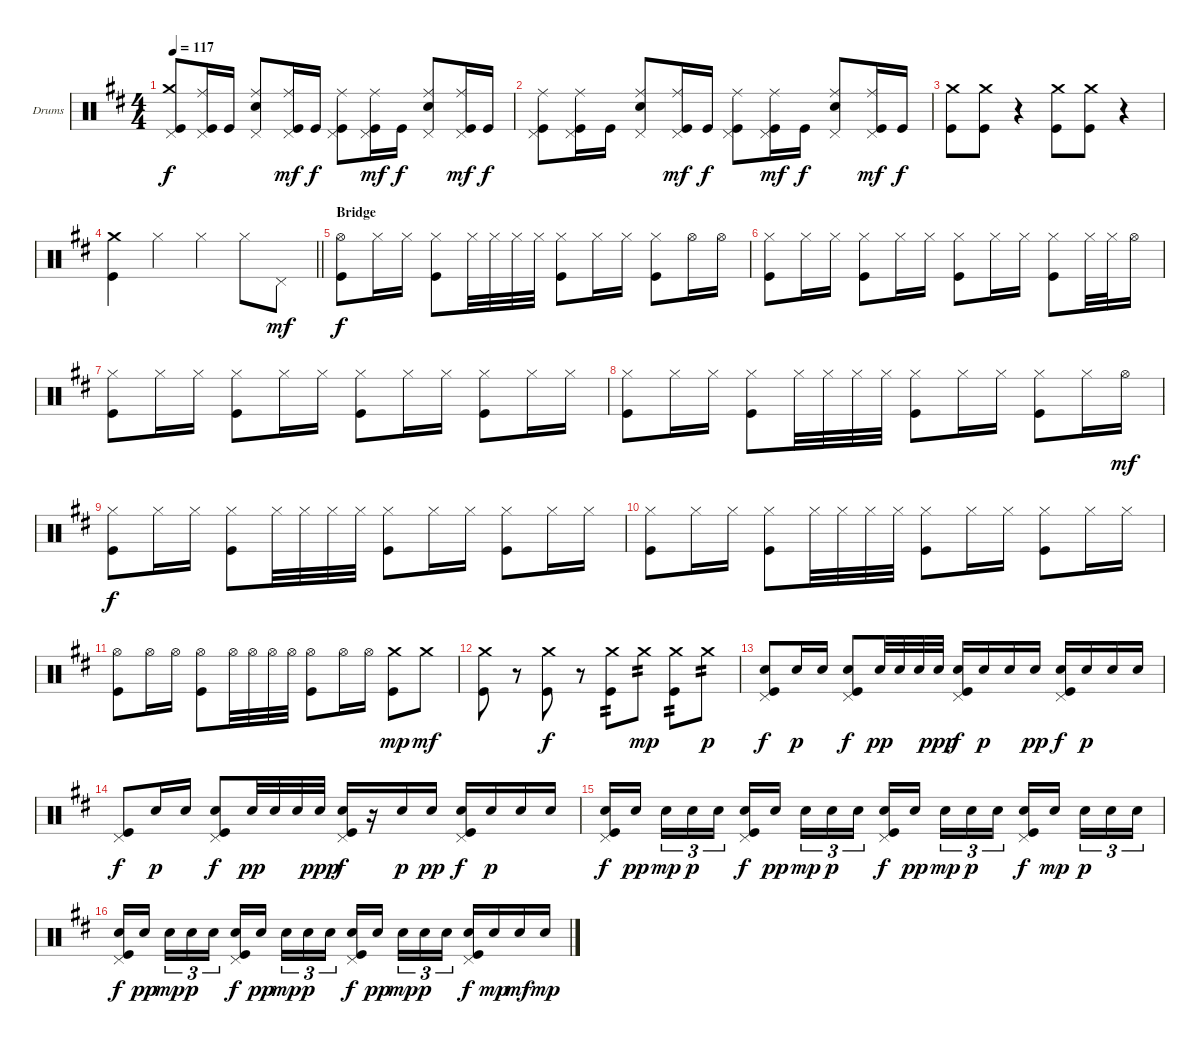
\bracketExtendMode groupsimilarinstruments
\firstSystemTrackNameOrientation horizontal
\otherSystemsTrackNameOrientation horizontal
\track ("Барабаны" "Drums") {instrument percussion}
\staff {score}
\articulation defaults
\ts (4 4)
\tempo 117
\clef neutral
\ks d
("Kick (hit)" "Crash medium (hit)" "Pedal Hi-Hat (hit)").8{dy f} ("Kick (hit)" "Ride (middle)" "Pedal Hi-Hat (hit)").16 "Kick (hit)".16 ("Snare (hit) 2" "Ride (middle)" "Pedal Hi-Hat (hit)").8 ("Ride (middle)" "Kick (hit)" "Pedal Hi-Hat (hit)").16{dy mf} "Kick (hit)".16{dy f} ("Kick (hit)" "Ride (middle)" "Pedal Hi-Hat (hit)").8 ("Ride (middle)" "Kick (hit)" "Pedal Hi-Hat (hit)").16{dy mf} "Kick (hit)".16{dy f} ("Snare (hit) 2" "Ride (middle)" "Pedal Hi-Hat (hit)").8 ("Ride (middle)" "Kick (hit)" "Pedal Hi-Hat (hit)").16{dy mf} "Kick (hit)".16{dy f} |
("Kick (hit)" "Ride (middle)" "Pedal Hi-Hat (hit)").8 ("Kick (hit)" "Ride (middle)" "Pedal Hi-Hat (hit)").16 "Kick (hit)".16 ("Snare (hit) 2" "Ride (middle)" "Pedal Hi-Hat (hit)").8 ("Ride (middle)" "Kick (hit)" "Pedal Hi-Hat (hit)").16{dy mf} "Kick (hit)".16{dy f} ("Kick (hit)" "Ride (middle)" "Pedal Hi-Hat (hit)").8 ("Ride (middle)" "Kick (hit)" "Pedal Hi-Hat (hit)").16{dy mf} "Kick (hit)".16{dy f} ("Snare (hit) 2" "Ride (middle)" "Pedal Hi-Hat (hit)").8 ("Ride (middle)" "Kick (hit)" "Pedal Hi-Hat (hit)").16{dy mf} "Kick (hit)".16{dy f} |
("Kick (hit)" "Crash medium (hit)").8 ("Kick (hit)" "Crash medium (hit)").8 r.4 ("Kick (hit)" "Crash medium (hit)").8 ("Kick (hit)" "Crash medium (hit)").8 r.4 |
\barLineRight lightlight
("Kick (hit)" "Crash medium (hit)").4 "Hi-Hat (closed)".4 "Hi-Hat (closed)".4 "Hi-Hat (closed)".8 "Pedal Hi-Hat (hit)".8{dy mf} |
\section ("" "Bridge")
("Hi-Hat (open)" "Kick (hit)").8{dy f} "Hi-Hat (closed)".16 "Hi-Hat (closed)".16 ("Hi-Hat (closed)" "Kick (hit)").8 "Hi-Hat (closed)".32 "Hi-Hat (closed)".32 "Hi-Hat (closed)".32 "Hi-Hat (closed)".32 ("Hi-Hat (closed)" "Kick (hit)").8 "Hi-Hat (closed)".16 "Hi-Hat (closed)".16 ("Hi-Hat (closed)" "Kick (hit)").8 "Hi-Hat (open)".16 "Hi-Hat (open)".16 |
("Hi-Hat (closed)" "Kick (hit)").8 "Hi-Hat (closed)".16 "Hi-Hat (closed)".16 ("Hi-Hat (closed)" "Kick (hit)").8 "Hi-Hat (closed)".16 "Hi-Hat (closed)".16 ("Hi-Hat (closed)" "Kick (hit)").8 "Hi-Hat (closed)".16 "Hi-Hat (closed)".16 ("Hi-Hat (closed)" "Kick (hit)").8 "Hi-Hat (closed)".32 "Hi-Hat (closed)".32 "Hi-Hat (open)".16 |
("Hi-Hat (closed)" "Kick (hit)").8 "Hi-Hat (closed)".16 "Hi-Hat (closed)".16 ("Hi-Hat (closed)" "Kick (hit)").8 "Hi-Hat (closed)".16 "Hi-Hat (closed)".16 ("Hi-Hat (closed)" "Kick (hit)").8 "Hi-Hat (closed)".16 "Hi-Hat (closed)".16 ("Hi-Hat (closed)" "Kick (hit)").8 "Hi-Hat (closed)".16 "Hi-Hat (closed)".16 |
("Hi-Hat (closed)" "Kick (hit)").8 "Hi-Hat (closed)".16 "Hi-Hat (closed)".16 ("Hi-Hat (closed)" "Kick (hit)").8 "Hi-Hat (closed)".32 "Hi-Hat (closed)".32 "Hi-Hat (closed)".32 "Hi-Hat (closed)".32 ("Hi-Hat (closed)" "Kick (hit)").8 "Hi-Hat (closed)".16 "Hi-Hat (closed)".16 ("Hi-Hat (closed)" "Kick (hit)").8 "Hi-Hat (closed)".16 "Hi-Hat (open)".16{dy mf} |
("Hi-Hat (closed)" "Kick (hit)").8{dy f} "Hi-Hat (closed)".16 "Hi-Hat (closed)".16 ("Hi-Hat (closed)" "Kick (hit)").8 "Hi-Hat (closed)".32 "Hi-Hat (closed)".32 "Hi-Hat (closed)".32 "Hi-Hat (closed)".32 ("Hi-Hat (closed)" "Kick (hit)").8 "Hi-Hat (closed)".16 "Hi-Hat (closed)".16 ("Hi-Hat (closed)" "Kick (hit)").8 "Hi-Hat (closed)".16 "Hi-Hat (closed)".16 |
("Hi-Hat (closed)" "Kick (hit)").8 "Hi-Hat (closed)".16 "Hi-Hat (closed)".16 ("Hi-Hat (closed)" "Kick (hit)").8 "Hi-Hat (closed)".32 "Hi-Hat (closed)".32 "Hi-Hat (closed)".32 "Hi-Hat (closed)".32 ("Hi-Hat (closed)" "Kick (hit)").8 "Hi-Hat (closed)".16 "Hi-Hat (closed)".16 ("Hi-Hat (closed)" "Kick (hit)").8 "Hi-Hat (closed)".16 "Hi-Hat (closed)".16 |
("Hi-Hat (open)" "Kick (hit)").8 "Hi-Hat (open)".16 "Hi-Hat (open)".16 ("Kick (hit)" "Hi-Hat (open)").8 "Hi-Hat (open)".32 "Hi-Hat (open)".32 "Hi-Hat (open)".32 "Hi-Hat (open)".32 ("Hi-Hat (open)" "Kick (hit)").8 "Hi-Hat (open)".16 "Hi-Hat (open)".16 ("Crash medium (hit)" "Kick (hit)").8{dy mp} "Crash medium (hit)".8{dy mf} |
("Crash medium (hit)" "Kick (hit)").8 r.8 ("Kick (hit)" "Crash medium (hit)").8{dy f} r.8 ("Kick (hit)" "Crash medium (hit)").8{tp 2} "Crash medium (hit)".8{tp 2 dy mp} ("Crash medium (hit)" "Kick (hit)").8{tp 2} "Crash medium (hit)".8{tp 2 dy p} |
("Kick (hit)" "Pedal Hi-Hat (hit)" "Snare (hit) 2").8{dy f} "Snare (hit) 2".16{dy p} "Snare (hit) 2".16 ("Kick (hit)" "Pedal Hi-Hat (hit)" "Snare (hit) 2").8{dy f} "Snare (hit) 2".32{dy pp} "Snare (hit) 2".32 "Snare (hit) 2".32 "Snare (hit) 2".32{dy ppp} ("Kick (hit)" "Pedal Hi-Hat (hit)" "Snare (hit) 2").16{dy f} "Snare (hit) 2".16{dy p} "Snare (hit) 2".16 "Snare (hit) 2".16{dy pp} ("Kick (hit)" "Pedal Hi-Hat (hit)" "Snare (hit) 2").16{dy f} "Snare (hit) 2".16{dy p} "Snare (hit) 2".16 "Snare (hit) 2".16 |
("Kick (hit)" "Pedal Hi-Hat (hit)").8{dy f} "Snare (hit) 2".16{dy p} "Snare (hit) 2".16 ("Kick (hit)" "Pedal Hi-Hat (hit)" "Snare (hit) 2").8{dy f} "Snare (hit) 2".32{dy pp} "Snare (hit) 2".32 "Snare (hit) 2".32 "Snare (hit) 2".32{dy ppp} ("Kick (hit)" "Pedal Hi-Hat (hit)" "Snare (hit) 2").16{dy f} r.16 "Snare (hit) 2".16{dy p} "Snare (hit) 2".16{dy pp} ("Kick (hit)" "Pedal Hi-Hat (hit)" "Snare (hit) 2").16{dy f} "Snare (hit) 2".16{dy p} "Snare (hit) 2".16 "Snare (hit) 2".16 |
("Kick (hit)" "Pedal Hi-Hat (hit)" "Snare (hit) 2").16{dy f} "Snare (hit) 2".16{dy pp} "Snare (hit) 2".16{tu (3 2) dy mp} "Snare (hit) 2".16{tu (3 2) dy p} "Snare (hit) 2".16{tu (3 2)} ("Kick (hit)" "Pedal Hi-Hat (hit)" "Snare (hit) 2").16{dy f} "Snare (hit) 2".16{dy pp} "Snare (hit) 2".16{tu (3 2) dy mp} "Snare (hit) 2".16{tu (3 2) dy p} "Snare (hit) 2".16{tu (3 2)} ("Kick (hit)" "Pedal Hi-Hat (hit)" "Snare (hit) 2").16{dy f} "Snare (hit) 2".16{dy pp} "Snare (hit) 2".16{tu (3 2) dy mp} "Snare (hit) 2".16{tu (3 2) dy p} "Snare (hit) 2".16{tu (3 2)} ("Kick (hit)" "Pedal Hi-Hat (hit)" "Snare (hit) 2").16{dy f} "Snare (hit) 2".16{dy mp} "Snare (hit) 2".16{tu (3 2) dy p} "Snare (hit) 2".16{tu (3 2)} "Snare (hit) 2".16{tu (3 2)} |
("Kick (hit)" "Pedal Hi-Hat (hit)" "Snare (hit) 2").16{dy f} "Snare (hit) 2".16{dy pp} "Snare (hit) 2".16{tu (3 2) dy mp} "Snare (hit) 2".16{tu (3 2) dy p} "Snare (hit) 2".16{tu (3 2)} ("Kick (hit)" "Pedal Hi-Hat (hit)" "Snare (hit) 2").16{dy f} "Snare (hit) 2".16{dy pp} "Snare (hit) 2".16{tu (3 2) dy mp} "Snare (hit) 2".16{tu (3 2) dy p} "Snare (hit) 2".16{tu (3 2)} ("Kick (hit)" "Pedal Hi-Hat (hit)" "Snare (hit) 2").16{dy f} "Snare (hit) 2".16{dy pp} "Snare (hit) 2".16{tu (3 2) dy mp} "Snare (hit) 2".16{tu (3 2) dy p} "Snare (hit) 2".16{tu (3 2)} ("Kick (hit)" "Pedal Hi-Hat (hit)" "Snare (hit) 2").16{dy f} "Snare (hit) 2".16{dy mp} "Snare (hit) 2".16{dy mf} "Snare (hit) 2".16{dy mp}
